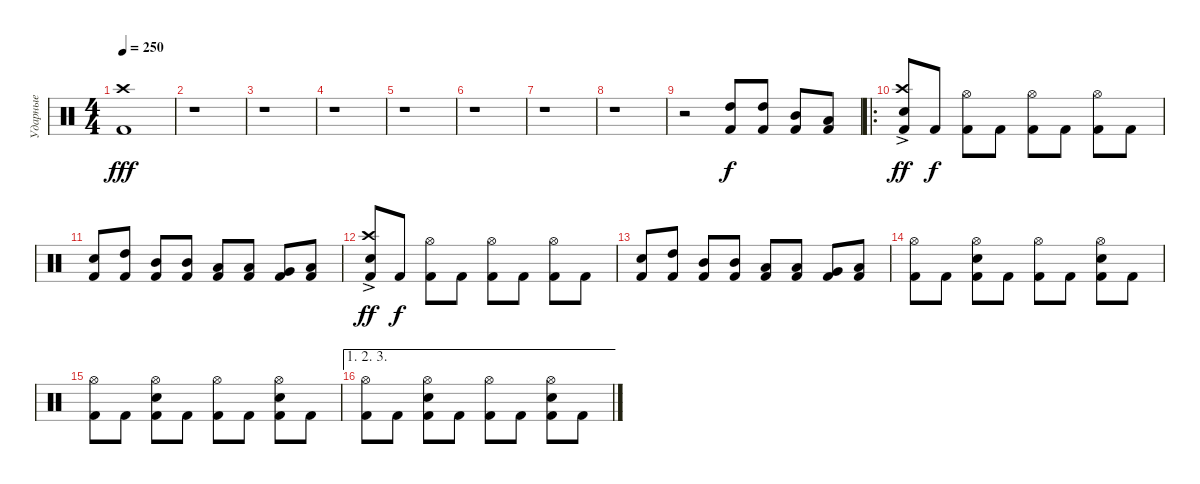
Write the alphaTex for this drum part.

\track ("Ударные" "Ударные") {instrument percussion}
\staff {score}
\articulation defaults
\ts (4 4)
\tempo 250
\clef neutral
\ks c
("Kick (hit) 2" "Crash high (hit)").1{dy fff} |
r.1 |
r.1 |
r.1 |
r.1 |
r.1 |
r.1 |
r.1 |
r.2 ("Kick (hit) 2" "High Tom (hit)").8{dy f} ("Kick (hit) 2" "High Tom (hit)").8 ("Kick (hit) 2" "Mid Tom (hit)").8 ("Kick (hit) 2" "Low Tom (hit)").8 |
\ro
("Kick (hit) 2" "Snare (hit) 2" "Crash high (hit)"{ac}).8{dy ff} "Kick (hit) 2".8{dy f} ("Kick (hit) 2" "Hi-Hat (open)").8 "Kick (hit) 2".8 ("Kick (hit) 2" "Hi-Hat (open)").8 "Kick (hit) 2".8 ("Kick (hit) 2" "Hi-Hat (open)").8 "Kick (hit) 2".8 |
("Kick (hit) 2" "Snare (hit) 2").8 ("Kick (hit) 2" "High Tom (hit)").8 ("Kick (hit) 2" "Mid Tom (hit)").8 ("Kick (hit) 2" "Mid Tom (hit)").8 ("Kick (hit) 2" "Low Tom (hit)").8 ("Kick (hit) 2" "Low Tom (hit)").8 ("Kick (hit) 2" "Very Low Tom (hit)").8 ("Kick (hit) 2" "Low Floor Tom (hit)").8 |
("Kick (hit) 2" "Snare (hit) 2" "Crash high (hit)"{ac}).8{dy ff} "Kick (hit) 2".8{dy f} ("Kick (hit) 2" "Hi-Hat (open)").8 "Kick (hit) 2".8 ("Kick (hit) 2" "Hi-Hat (open)").8 "Kick (hit) 2".8 ("Kick (hit) 2" "Hi-Hat (open)").8 "Kick (hit) 2".8 |
("Kick (hit) 2" "Snare (hit) 2").8 ("Kick (hit) 2" "High Tom (hit)").8 ("Kick (hit) 2" "Mid Tom (hit)").8 ("Kick (hit) 2" "Mid Tom (hit)").8 ("Kick (hit) 2" "Low Tom (hit)").8 ("Kick (hit) 2" "Low Tom (hit)").8 ("Kick (hit) 2" "Very Low Tom (hit)").8 ("Kick (hit) 2" "Low Floor Tom (hit)").8 |
("Kick (hit) 2" "Hi-Hat (open)").8 "Kick (hit) 2".8 ("Kick (hit) 2" "Snare (hit) 2" "Hi-Hat (open)").8 "Kick (hit) 2".8 ("Kick (hit) 2" "Hi-Hat (open)").8 "Kick (hit) 2".8 ("Kick (hit) 2" "Snare (hit) 2" "Hi-Hat (open)").8 "Kick (hit) 2".8 |
("Kick (hit) 2" "Hi-Hat (open)").8 "Kick (hit) 2".8 ("Kick (hit) 2" "Snare (hit) 2" "Hi-Hat (open)").8 "Kick (hit) 2".8 ("Kick (hit) 2" "Hi-Hat (open)").8 "Kick (hit) 2".8 ("Kick (hit) 2" "Snare (hit) 2" "Hi-Hat (open)").8 "Kick (hit) 2".8 |
\ae (1 2 3)
("Kick (hit) 2" "Hi-Hat (open)").8 "Kick (hit) 2".8 ("Kick (hit) 2" "Snare (hit) 2" "Hi-Hat (open)").8 "Kick (hit) 2".8 ("Kick (hit) 2" "Hi-Hat (open)").8 "Kick (hit) 2".8 ("Kick (hit) 2" "Snare (hit) 2" "Hi-Hat (open)").8 "Kick (hit) 2".8
